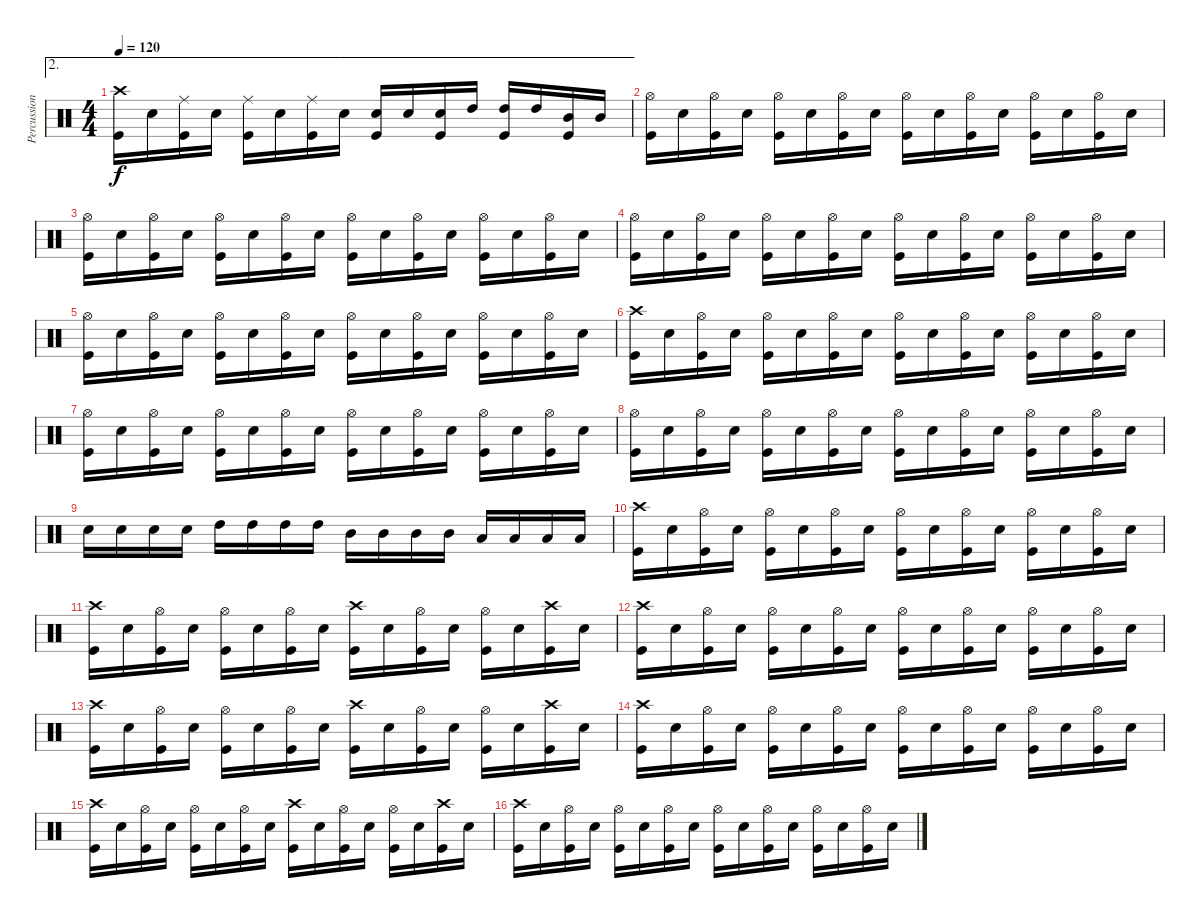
\track ("Percussioni" "Percussion") {instrument percussion}
\staff {score}
\articulation defaults
\ae 2
\ts (4 4)
\tempo 120
\clef neutral
\ks c
("Crash high (hit)" "Kick (hit)").16{dy f} "Electric Snare (hit)".16 ("Ride (middle)" "Kick (hit)").16 "Electric Snare (hit)".16 ("Ride (middle)" "Kick (hit)").16 "Electric Snare (hit)".16 ("Ride (middle)" "Kick (hit)").16 "Electric Snare (hit)".16 ("Electric Snare (hit)" "Kick (hit)").16 "Electric Snare (hit)".16 ("Electric Snare (hit)" "Kick (hit)").16 "High Tom (hit)".16 ("High Tom (hit)" "Kick (hit)").16 "High Tom (hit)".16 ("Mid Tom (hit)" "Kick (hit)").16 "Mid Tom (hit)".16 |
("Hi-Hat (open)" "Kick (hit)").16 "Electric Snare (hit)".16 ("Hi-Hat (open)" "Kick (hit)").16 "Electric Snare (hit)".16 ("Hi-Hat (open)" "Kick (hit)").16 "Electric Snare (hit)".16 ("Hi-Hat (open)" "Kick (hit)").16 "Electric Snare (hit)".16 ("Hi-Hat (open)" "Kick (hit)").16 "Electric Snare (hit)".16 ("Hi-Hat (open)" "Kick (hit)").16 "Electric Snare (hit)".16 ("Hi-Hat (open)" "Kick (hit)").16 "Electric Snare (hit)".16 ("Hi-Hat (open)" "Kick (hit)").16 "Electric Snare (hit)".16 |
("Hi-Hat (open)" "Kick (hit)").16 "Electric Snare (hit)".16 ("Hi-Hat (open)" "Kick (hit)").16 "Electric Snare (hit)".16 ("Hi-Hat (open)" "Kick (hit)").16 "Electric Snare (hit)".16 ("Hi-Hat (open)" "Kick (hit)").16 "Electric Snare (hit)".16 ("Hi-Hat (open)" "Kick (hit)").16 "Electric Snare (hit)".16 ("Hi-Hat (open)" "Kick (hit)").16 "Electric Snare (hit)".16 ("Hi-Hat (open)" "Kick (hit)").16 "Electric Snare (hit)".16 ("Hi-Hat (open)" "Kick (hit)").16 "Electric Snare (hit)".16 |
("Hi-Hat (open)" "Kick (hit)").16 "Electric Snare (hit)".16 ("Hi-Hat (open)" "Kick (hit)").16 "Electric Snare (hit)".16 ("Hi-Hat (open)" "Kick (hit)").16 "Electric Snare (hit)".16 ("Hi-Hat (open)" "Kick (hit)").16 "Electric Snare (hit)".16 ("Hi-Hat (open)" "Kick (hit)").16 "Electric Snare (hit)".16 ("Hi-Hat (open)" "Kick (hit)").16 "Electric Snare (hit)".16 ("Hi-Hat (open)" "Kick (hit)").16 "Electric Snare (hit)".16 ("Hi-Hat (open)" "Kick (hit)").16 "Electric Snare (hit)".16 |
("Hi-Hat (open)" "Kick (hit)").16 "Electric Snare (hit)".16 ("Hi-Hat (open)" "Kick (hit)").16 "Electric Snare (hit)".16 ("Hi-Hat (open)" "Kick (hit)").16 "Electric Snare (hit)".16 ("Hi-Hat (open)" "Kick (hit)").16 "Electric Snare (hit)".16 ("Hi-Hat (open)" "Kick (hit)").16 "Electric Snare (hit)".16 ("Hi-Hat (open)" "Kick (hit)").16 "Electric Snare (hit)".16 ("Hi-Hat (open)" "Kick (hit)").16 "Electric Snare (hit)".16 ("Hi-Hat (open)" "Kick (hit)").16 "Electric Snare (hit)".16 |
("Crash high (hit)" "Kick (hit)").16 "Electric Snare (hit)".16 ("Hi-Hat (open)" "Kick (hit)").16 "Electric Snare (hit)".16 ("Hi-Hat (open)" "Kick (hit)").16 "Electric Snare (hit)".16 ("Hi-Hat (open)" "Kick (hit)").16 "Electric Snare (hit)".16 ("Hi-Hat (open)" "Kick (hit)").16 "Electric Snare (hit)".16 ("Hi-Hat (open)" "Kick (hit)").16 "Electric Snare (hit)".16 ("Hi-Hat (open)" "Kick (hit)").16 "Electric Snare (hit)".16 ("Hi-Hat (open)" "Kick (hit)").16 "Electric Snare (hit)".16 |
("Hi-Hat (open)" "Kick (hit)").16 "Electric Snare (hit)".16 ("Hi-Hat (open)" "Kick (hit)").16 "Electric Snare (hit)".16 ("Hi-Hat (open)" "Kick (hit)").16 "Electric Snare (hit)".16 ("Hi-Hat (open)" "Kick (hit)").16 "Electric Snare (hit)".16 ("Hi-Hat (open)" "Kick (hit)").16 "Electric Snare (hit)".16 ("Hi-Hat (open)" "Kick (hit)").16 "Electric Snare (hit)".16 ("Hi-Hat (open)" "Kick (hit)").16 "Electric Snare (hit)".16 ("Hi-Hat (open)" "Kick (hit)").16 "Electric Snare (hit)".16 |
("Hi-Hat (open)" "Kick (hit)").16 "Electric Snare (hit)".16 ("Hi-Hat (open)" "Kick (hit)").16 "Electric Snare (hit)".16 ("Hi-Hat (open)" "Kick (hit)").16 "Electric Snare (hit)".16 ("Hi-Hat (open)" "Kick (hit)").16 "Electric Snare (hit)".16 ("Hi-Hat (open)" "Kick (hit)").16 "Electric Snare (hit)".16 ("Hi-Hat (open)" "Kick (hit)").16 "Electric Snare (hit)".16 ("Hi-Hat (open)" "Kick (hit)").16 "Electric Snare (hit)".16 ("Hi-Hat (open)" "Kick (hit)").16 "Electric Snare (hit)".16 |
"Electric Snare (hit)".16 "Electric Snare (hit)".16 "Electric Snare (hit)".16 "Electric Snare (hit)".16 "High Tom (hit)".16 "High Tom (hit)".16 "High Tom (hit)".16 "High Tom (hit)".16 "Mid Tom (hit)".16 "Mid Tom (hit)".16 "Mid Tom (hit)".16 "Mid Tom (hit)".16 "Low Tom (hit)".16 "Low Tom (hit)".16 "Low Tom (hit)".16 "Low Tom (hit)".16 |
("Crash high (hit)" "Kick (hit)").16 "Electric Snare (hit)".16 ("Hi-Hat (open)" "Kick (hit)").16 "Electric Snare (hit)".16 ("Hi-Hat (open)" "Kick (hit)").16 "Electric Snare (hit)".16 ("Hi-Hat (open)" "Kick (hit)").16 "Electric Snare (hit)".16 ("Hi-Hat (open)" "Kick (hit)").16 "Electric Snare (hit)".16 ("Hi-Hat (open)" "Kick (hit)").16 "Electric Snare (hit)".16 ("Hi-Hat (open)" "Kick (hit)").16 "Electric Snare (hit)".16 ("Hi-Hat (open)" "Kick (hit)").16 "Electric Snare (hit)".16 |
("Crash high (hit)" "Kick (hit)").16 "Electric Snare (hit)".16 ("Hi-Hat (open)" "Kick (hit)").16 "Electric Snare (hit)".16 ("Hi-Hat (open)" "Kick (hit)").16 "Electric Snare (hit)".16 ("Hi-Hat (open)" "Kick (hit)").16 "Electric Snare (hit)".16 ("Crash high (hit)" "Kick (hit)").16 "Electric Snare (hit)".16 ("Hi-Hat (open)" "Kick (hit)").16 "Electric Snare (hit)".16 ("Hi-Hat (open)" "Kick (hit)").16 "Electric Snare (hit)".16 ("Crash high (hit)" "Kick (hit)").16 "Electric Snare (hit)".16 |
("Crash high (hit)" "Kick (hit)").16 "Electric Snare (hit)".16 ("Hi-Hat (open)" "Kick (hit)").16 "Electric Snare (hit)".16 ("Hi-Hat (open)" "Kick (hit)").16 "Electric Snare (hit)".16 ("Hi-Hat (open)" "Kick (hit)").16 "Electric Snare (hit)".16 ("Hi-Hat (open)" "Kick (hit)").16 "Electric Snare (hit)".16 ("Hi-Hat (open)" "Kick (hit)").16 "Electric Snare (hit)".16 ("Hi-Hat (open)" "Kick (hit)").16 "Electric Snare (hit)".16 ("Hi-Hat (open)" "Kick (hit)").16 "Electric Snare (hit)".16 |
("Crash high (hit)" "Kick (hit)").16 "Electric Snare (hit)".16 ("Hi-Hat (open)" "Kick (hit)").16 "Electric Snare (hit)".16 ("Hi-Hat (open)" "Kick (hit)").16 "Electric Snare (hit)".16 ("Hi-Hat (open)" "Kick (hit)").16 "Electric Snare (hit)".16 ("Crash high (hit)" "Kick (hit)").16 "Electric Snare (hit)".16 ("Hi-Hat (open)" "Kick (hit)").16 "Electric Snare (hit)".16 ("Hi-Hat (open)" "Kick (hit)").16 "Electric Snare (hit)".16 ("Crash high (hit)" "Kick (hit)").16 "Electric Snare (hit)".16 |
("Crash high (hit)" "Kick (hit)").16 "Electric Snare (hit)".16 ("Hi-Hat (open)" "Kick (hit)").16 "Electric Snare (hit)".16 ("Hi-Hat (open)" "Kick (hit)").16 "Electric Snare (hit)".16 ("Hi-Hat (open)" "Kick (hit)").16 "Electric Snare (hit)".16 ("Hi-Hat (open)" "Kick (hit)").16 "Electric Snare (hit)".16 ("Hi-Hat (open)" "Kick (hit)").16 "Electric Snare (hit)".16 ("Hi-Hat (open)" "Kick (hit)").16 "Electric Snare (hit)".16 ("Hi-Hat (open)" "Kick (hit)").16 "Electric Snare (hit)".16 |
("Crash high (hit)" "Kick (hit)").16 "Electric Snare (hit)".16 ("Hi-Hat (open)" "Kick (hit)").16 "Electric Snare (hit)".16 ("Hi-Hat (open)" "Kick (hit)").16 "Electric Snare (hit)".16 ("Hi-Hat (open)" "Kick (hit)").16 "Electric Snare (hit)".16 ("Crash high (hit)" "Kick (hit)").16 "Electric Snare (hit)".16 ("Hi-Hat (open)" "Kick (hit)").16 "Electric Snare (hit)".16 ("Hi-Hat (open)" "Kick (hit)").16 "Electric Snare (hit)".16 ("Crash high (hit)" "Kick (hit)").16 "Electric Snare (hit)".16 |
("Crash high (hit)" "Kick (hit)").16 "Electric Snare (hit)".16 ("Hi-Hat (open)" "Kick (hit)").16 "Electric Snare (hit)".16 ("Hi-Hat (open)" "Kick (hit)").16 "Electric Snare (hit)".16 ("Hi-Hat (open)" "Kick (hit)").16 "Electric Snare (hit)".16 ("Hi-Hat (open)" "Kick (hit)").16 "Electric Snare (hit)".16 ("Hi-Hat (open)" "Kick (hit)").16 "Electric Snare (hit)".16 ("Hi-Hat (open)" "Kick (hit)").16 "Electric Snare (hit)".16 ("Hi-Hat (open)" "Kick (hit)").16 "Electric Snare (hit)".16
